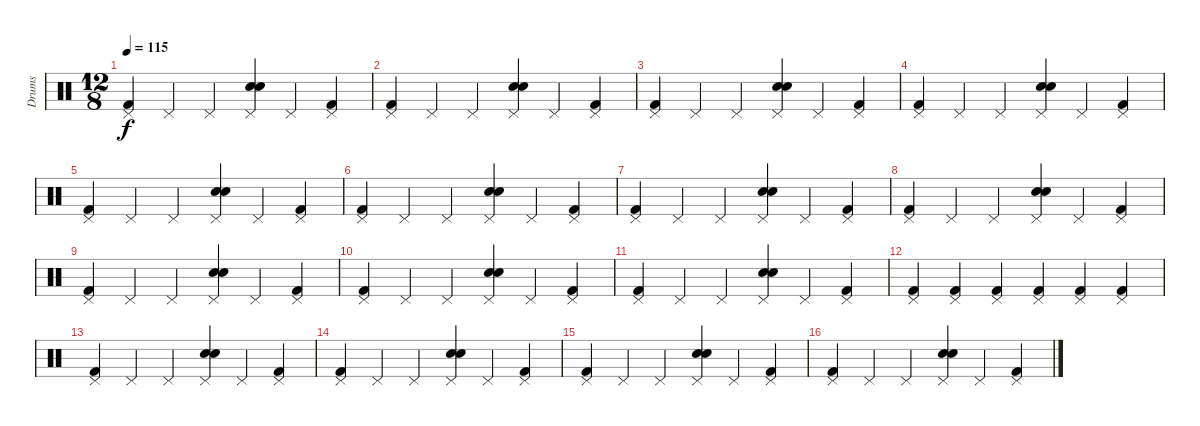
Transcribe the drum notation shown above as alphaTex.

\track ("Drums" "Drums") {instrument percussion}
\staff {score}
\articulation defaults
\ts (12 8)
\tempo 115
\clef neutral
\ks c
("Kick (hit) 2" "Pedal Hi-Hat (hit)").4{dy f} "Pedal Hi-Hat (hit)".4 "Pedal Hi-Hat (hit)".4 ("Electric Snare (hit)" "Snare (hit) 2" "Pedal Hi-Hat (hit)").4 "Pedal Hi-Hat (hit)".4 ("Kick (hit) 2" "Pedal Hi-Hat (hit)").4 |
("Kick (hit) 2" "Pedal Hi-Hat (hit)").4 "Pedal Hi-Hat (hit)".4 "Pedal Hi-Hat (hit)".4 ("Electric Snare (hit)" "Snare (hit) 2" "Pedal Hi-Hat (hit)").4 "Pedal Hi-Hat (hit)".4 ("Kick (hit) 2" "Pedal Hi-Hat (hit)").4 |
("Kick (hit) 2" "Pedal Hi-Hat (hit)").4 "Pedal Hi-Hat (hit)".4 "Pedal Hi-Hat (hit)".4 ("Electric Snare (hit)" "Snare (hit) 2" "Pedal Hi-Hat (hit)").4 "Pedal Hi-Hat (hit)".4 ("Kick (hit) 2" "Pedal Hi-Hat (hit)").4 |
("Kick (hit) 2" "Pedal Hi-Hat (hit)").4 "Pedal Hi-Hat (hit)".4 "Pedal Hi-Hat (hit)".4 ("Electric Snare (hit)" "Snare (hit) 2" "Pedal Hi-Hat (hit)").4 "Pedal Hi-Hat (hit)".4 ("Kick (hit) 2" "Pedal Hi-Hat (hit)").4 |
("Kick (hit) 2" "Pedal Hi-Hat (hit)").4 "Pedal Hi-Hat (hit)".4 "Pedal Hi-Hat (hit)".4 ("Electric Snare (hit)" "Snare (hit) 2" "Pedal Hi-Hat (hit)").4 "Pedal Hi-Hat (hit)".4 ("Kick (hit) 2" "Pedal Hi-Hat (hit)").4 |
("Kick (hit) 2" "Pedal Hi-Hat (hit)").4 "Pedal Hi-Hat (hit)".4 "Pedal Hi-Hat (hit)".4 ("Electric Snare (hit)" "Snare (hit) 2" "Pedal Hi-Hat (hit)").4 "Pedal Hi-Hat (hit)".4 ("Kick (hit) 2" "Pedal Hi-Hat (hit)").4 |
("Kick (hit) 2" "Pedal Hi-Hat (hit)").4 "Pedal Hi-Hat (hit)".4 "Pedal Hi-Hat (hit)".4 ("Electric Snare (hit)" "Snare (hit) 2" "Pedal Hi-Hat (hit)").4 "Pedal Hi-Hat (hit)".4 ("Kick (hit) 2" "Pedal Hi-Hat (hit)").4 |
("Kick (hit) 2" "Pedal Hi-Hat (hit)").4 "Pedal Hi-Hat (hit)".4 "Pedal Hi-Hat (hit)".4 ("Electric Snare (hit)" "Snare (hit) 2" "Pedal Hi-Hat (hit)").4 "Pedal Hi-Hat (hit)".4 ("Kick (hit) 2" "Pedal Hi-Hat (hit)").4 |
("Kick (hit) 2" "Pedal Hi-Hat (hit)").4 "Pedal Hi-Hat (hit)".4 "Pedal Hi-Hat (hit)".4 ("Electric Snare (hit)" "Snare (hit) 2" "Pedal Hi-Hat (hit)").4 "Pedal Hi-Hat (hit)".4 ("Kick (hit) 2" "Pedal Hi-Hat (hit)").4 |
("Kick (hit) 2" "Pedal Hi-Hat (hit)").4 "Pedal Hi-Hat (hit)".4 "Pedal Hi-Hat (hit)".4 ("Electric Snare (hit)" "Snare (hit) 2" "Pedal Hi-Hat (hit)").4 "Pedal Hi-Hat (hit)".4 ("Kick (hit) 2" "Pedal Hi-Hat (hit)").4 |
("Kick (hit) 2" "Pedal Hi-Hat (hit)").4 "Pedal Hi-Hat (hit)".4 "Pedal Hi-Hat (hit)".4 ("Electric Snare (hit)" "Snare (hit) 2" "Pedal Hi-Hat (hit)").4 "Pedal Hi-Hat (hit)".4 ("Kick (hit) 2" "Pedal Hi-Hat (hit)").4 |
("Kick (hit) 2" "Pedal Hi-Hat (hit)").4 ("Kick (hit) 2" "Pedal Hi-Hat (hit)").4 ("Kick (hit) 2" "Pedal Hi-Hat (hit)").4 ("Kick (hit) 2" "Pedal Hi-Hat (hit)").4 ("Kick (hit) 2" "Pedal Hi-Hat (hit)").4 ("Kick (hit) 2" "Pedal Hi-Hat (hit)").4 |
("Kick (hit) 2" "Pedal Hi-Hat (hit)").4 "Pedal Hi-Hat (hit)".4 "Pedal Hi-Hat (hit)".4 ("Electric Snare (hit)" "Snare (hit) 2" "Pedal Hi-Hat (hit)").4 "Pedal Hi-Hat (hit)".4 ("Kick (hit) 2" "Pedal Hi-Hat (hit)").4 |
("Kick (hit) 2" "Pedal Hi-Hat (hit)").4 "Pedal Hi-Hat (hit)".4 "Pedal Hi-Hat (hit)".4 ("Electric Snare (hit)" "Snare (hit) 2" "Pedal Hi-Hat (hit)").4 "Pedal Hi-Hat (hit)".4 ("Kick (hit) 2" "Pedal Hi-Hat (hit)").4 |
("Kick (hit) 2" "Pedal Hi-Hat (hit)").4 "Pedal Hi-Hat (hit)".4 "Pedal Hi-Hat (hit)".4 ("Electric Snare (hit)" "Snare (hit) 2" "Pedal Hi-Hat (hit)").4 "Pedal Hi-Hat (hit)".4 ("Kick (hit) 2" "Pedal Hi-Hat (hit)").4 |
("Kick (hit) 2" "Pedal Hi-Hat (hit)").4 "Pedal Hi-Hat (hit)".4 "Pedal Hi-Hat (hit)".4 ("Electric Snare (hit)" "Snare (hit) 2" "Pedal Hi-Hat (hit)").4 "Pedal Hi-Hat (hit)".4 ("Kick (hit) 2" "Pedal Hi-Hat (hit)").4
